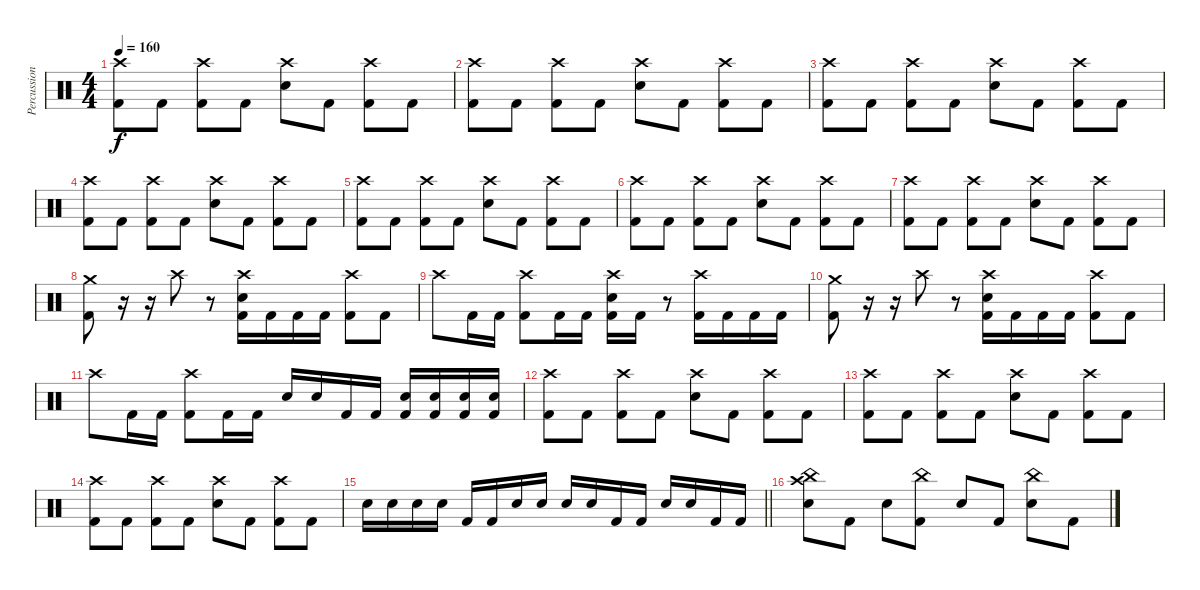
\track ("Percussion" "Percussion") {instrument percussion bank 255}
\staff {score}
\articulation defaults
\ts (4 4)
\tempo 160
\clef neutral
\ks c
("Crash high (hit)" "Kick (hit) 2").8{dy f} "Kick (hit) 2".8 ("Crash high (hit)" "Kick (hit) 2").8 "Kick (hit) 2".8 ("Crash high (hit)" "Electric Snare (hit)").8 "Kick (hit) 2".8 ("Crash high (hit)" "Kick (hit) 2").8 "Kick (hit) 2".8 |
("Crash high (hit)" "Kick (hit) 2").8 "Kick (hit) 2".8 ("Crash high (hit)" "Kick (hit) 2").8 "Kick (hit) 2".8 ("Crash high (hit)" "Electric Snare (hit)").8 "Kick (hit) 2".8 ("Crash high (hit)" "Kick (hit) 2").8 "Kick (hit) 2".8 |
("Crash high (hit)" "Kick (hit) 2").8 "Kick (hit) 2".8 ("Crash high (hit)" "Kick (hit) 2").8 "Kick (hit) 2".8 ("Crash high (hit)" "Electric Snare (hit)").8 "Kick (hit) 2".8 ("Crash high (hit)" "Kick (hit) 2").8 "Kick (hit) 2".8 |
("Crash high (hit)" "Kick (hit) 2").8 "Kick (hit) 2".8 ("Crash high (hit)" "Kick (hit) 2").8 "Kick (hit) 2".8 ("Crash high (hit)" "Electric Snare (hit)").8 "Kick (hit) 2".8 ("Crash high (hit)" "Kick (hit) 2").8 "Kick (hit) 2".8 |
("Crash high (hit)" "Kick (hit) 2").8 "Kick (hit) 2".8 ("Crash high (hit)" "Kick (hit) 2").8 "Kick (hit) 2".8 ("Crash high (hit)" "Electric Snare (hit)").8 "Kick (hit) 2".8 ("Crash high (hit)" "Kick (hit) 2").8 "Kick (hit) 2".8 |
("Crash high (hit)" "Kick (hit) 2").8 "Kick (hit) 2".8 ("Crash high (hit)" "Kick (hit) 2").8 "Kick (hit) 2".8 ("Crash high (hit)" "Electric Snare (hit)").8 "Kick (hit) 2".8 ("Crash high (hit)" "Kick (hit) 2").8 "Kick (hit) 2".8 |
("Crash high (hit)" "Kick (hit) 2").8 "Kick (hit) 2".8 ("Crash high (hit)" "Kick (hit) 2").8 "Kick (hit) 2".8 ("Crash high (hit)" "Electric Snare (hit)").8 "Kick (hit) 2".8 ("Crash high (hit)" "Kick (hit) 2").8 "Kick (hit) 2".8 |
("Crash medium (hit)" "Kick (hit) 2").8 r.16 r.16 "Crash high (hit)".8 r.8 ("Crash high (hit)" "Electric Snare (hit)" "Kick (hit) 2").16 "Kick (hit) 2".16 "Kick (hit) 2".16 "Kick (hit) 2".16 ("Crash high (hit)" "Kick (hit) 2").8 "Kick (hit) 2".8 |
"Crash high (hit)".8 "Kick (hit) 2".16 "Kick (hit) 2".16 ("Crash high (hit)" "Kick (hit) 2").8 "Kick (hit) 2".16 "Kick (hit) 2".16 ("Crash high (hit)" "Electric Snare (hit)" "Kick (hit) 2").16 "Kick (hit) 2".16 r.8 ("Crash high (hit)" "Kick (hit) 2").16 "Kick (hit) 2".16 "Kick (hit) 2".16 "Kick (hit) 2".16 |
("Crash medium (hit)" "Kick (hit) 2").8 r.16 r.16 "Crash high (hit)".8 r.8 ("Crash high (hit)" "Electric Snare (hit)" "Kick (hit) 2").16 "Kick (hit) 2".16 "Kick (hit) 2".16 "Kick (hit) 2".16 ("Crash high (hit)" "Kick (hit) 2").8 "Kick (hit) 2".8 |
"Crash high (hit)".8 "Kick (hit) 2".16 "Kick (hit) 2".16 ("Crash high (hit)" "Kick (hit) 2").8 "Kick (hit) 2".16 "Kick (hit) 2".16 "Electric Snare (hit)".16 "Electric Snare (hit)".16 "Kick (hit) 2".16 "Kick (hit) 2".16 ("Electric Snare (hit)" "Kick (hit) 2").16 ("Electric Snare (hit)" "Kick (hit) 2").16 ("Electric Snare (hit)" "Kick (hit) 2").16 ("Electric Snare (hit)" "Kick (hit) 2").16 |
("Crash high (hit)" "Kick (hit) 2").8 "Kick (hit) 2".8 ("Crash high (hit)" "Kick (hit) 2").8 "Kick (hit) 2".8 ("Crash high (hit)" "Electric Snare (hit)").8 "Kick (hit) 2".8 ("Crash high (hit)" "Kick (hit) 2").8 "Kick (hit) 2".8 |
("Crash high (hit)" "Kick (hit) 2").8 "Kick (hit) 2".8 ("Crash high (hit)" "Kick (hit) 2").8 "Kick (hit) 2".8 ("Crash high (hit)" "Electric Snare (hit)").8 "Kick (hit) 2".8 ("Crash high (hit)" "Kick (hit) 2").8 "Kick (hit) 2".8 |
("Crash high (hit)" "Kick (hit) 2").8 "Kick (hit) 2".8 ("Crash high (hit)" "Kick (hit) 2").8 "Kick (hit) 2".8 ("Crash high (hit)" "Electric Snare (hit)").8 "Kick (hit) 2".8 ("Crash high (hit)" "Kick (hit) 2").8 "Kick (hit) 2".8 |
\barLineRight lightlight "Electric Snare (hit)".16 "Electric Snare (hit)".16 "Electric Snare (hit)".16 "Electric Snare (hit)".16 "Kick (hit) 2".16 "Kick (hit) 2".16 "Electric Snare (hit)".16 "Electric Snare (hit)".16 "Electric Snare (hit)".16 "Electric Snare (hit)".16 "Kick (hit) 2".16 "Kick (hit) 2".16 "Electric Snare (hit)".16 "Electric Snare (hit)".16 "Kick (hit) 2".16 "Kick (hit) 2".16
|
("Crash high (hit)" "China (hit)" "Electric Snare (hit)").8 "Kick (hit) 2".8 "Electric Snare (hit)".8 ("China (hit)" "Kick (hit) 2").8 "Electric Snare (hit)".8 "Kick (hit) 2".8 ("China (hit)" "Electric Snare (hit)").8 "Kick (hit) 2".8
